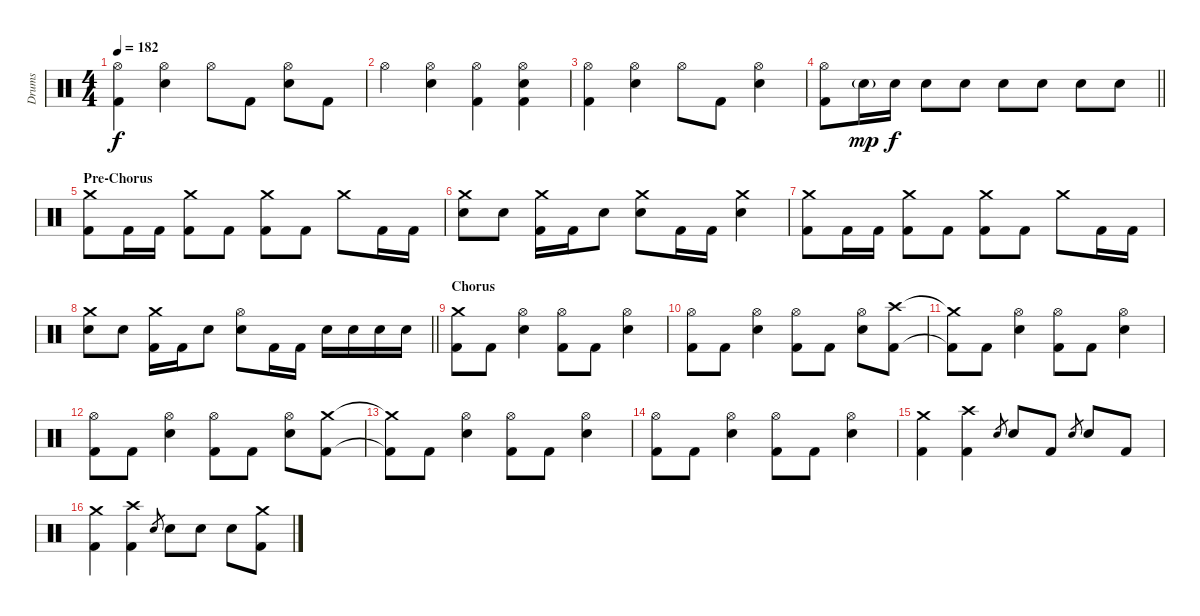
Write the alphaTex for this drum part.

\track ("Drums" "Drums") {instrument percussion}
\staff {score}
\articulation defaults
\ts (4 4)
\tempo 182
\clef neutral
\ks c
("Hi-Hat (open)" "Kick (hit) 2").4{dy f} ("Hi-Hat (open)" "Electric Snare (hit)").4 "Hi-Hat (open)".8 "Kick (hit) 2".8 ("Hi-Hat (open)" "Electric Snare (hit)").8 "Kick (hit) 2".8 |
"Hi-Hat (open)".4 ("Hi-Hat (open)" "Electric Snare (hit)").4 ("Hi-Hat (open)" "Kick (hit) 2").4 ("Hi-Hat (open)" "Electric Snare (hit)" "Kick (hit) 2").4 |
("Hi-Hat (open)" "Kick (hit) 2").4 ("Hi-Hat (open)" "Electric Snare (hit)").4 "Hi-Hat (open)".8 "Kick (hit) 2".8 ("Hi-Hat (open)" "Electric Snare (hit)").4 |
\barLineRight lightlight
("Hi-Hat (open)" "Kick (hit) 2").8 "Electric Snare (hit)"{g}.16{dy mp} "Electric Snare (hit)".16{dy f} "Electric Snare (hit)".8 "Electric Snare (hit)".8 "Electric Snare (hit)".8 "Electric Snare (hit)".8 "Electric Snare (hit)".8 "Electric Snare (hit)".8 |
\section ("" "Pre-Chorus")
("Crash medium (hit)" "Kick (hit) 2").8 "Kick (hit) 2".16 "Kick (hit) 2".16 ("Crash medium (hit)" "Kick (hit) 2").8 "Kick (hit) 2".8 ("Crash medium (hit)" "Kick (hit) 2").8 "Kick (hit) 2".8 "Crash medium (hit)".8 "Kick (hit) 2".16 "Kick (hit) 2".16 |
("Crash medium (hit)" "Electric Snare (hit)").8 "Electric Snare (hit)".8 ("Crash medium (hit)" "Kick (hit) 2").16 "Kick (hit) 2".16 "Electric Snare (hit)".8 ("Crash medium (hit)" "Electric Snare (hit)").8 "Kick (hit) 2".16 "Kick (hit) 2".16 ("Crash medium (hit)" "Electric Snare (hit)").4 |
("Crash medium (hit)" "Kick (hit) 2").8 "Kick (hit) 2".16 "Kick (hit) 2".16 ("Crash medium (hit)" "Kick (hit) 2").8 "Kick (hit) 2".8 ("Crash medium (hit)" "Kick (hit) 2").8 "Kick (hit) 2".8 "Crash medium (hit)".8 "Kick (hit) 2".16 "Kick (hit) 2".16 |
\barLineRight lightlight
("Crash medium (hit)" "Electric Snare (hit)").8 "Electric Snare (hit)".8 ("Crash medium (hit)" "Kick (hit) 2").16 "Kick (hit) 2".16 "Electric Snare (hit)".8 ("Hi-Hat (open)" "Electric Snare (hit)").8 "Kick (hit) 2".16 "Kick (hit) 2".16 "Electric Snare (hit)".16 "Electric Snare (hit)".16 "Electric Snare (hit)".16 "Electric Snare (hit)".16 |
\section ("" "Chorus")
("Crash medium (hit)" "Kick (hit) 2").8 "Kick (hit) 2".8 ("Hi-Hat (open)" "Electric Snare (hit)").4 ("Hi-Hat (open)" "Kick (hit) 2").8 "Kick (hit) 2".8 ("Hi-Hat (open)" "Electric Snare (hit)").4 |
("Hi-Hat (open)" "Kick (hit) 2").8 "Kick (hit) 2".8 ("Hi-Hat (open)" "Electric Snare (hit)").4 ("Hi-Hat (open)" "Kick (hit) 2").8 "Kick (hit) 2".8 ("Hi-Hat (open)" "Electric Snare (hit)").8 ("Crash high (hit)" "Kick (hit) 2").8 |
("Crash medium (hit)"{t} "Kick (hit) 2"{t}).8 "Kick (hit) 2".8 ("Hi-Hat (open)" "Electric Snare (hit)").4 ("Hi-Hat (open)" "Kick (hit) 2").8 "Kick (hit) 2".8 ("Hi-Hat (open)" "Electric Snare (hit)").4 |
("Hi-Hat (open)" "Kick (hit) 2").8 "Kick (hit) 2".8 ("Hi-Hat (open)" "Electric Snare (hit)").4 ("Hi-Hat (open)" "Kick (hit) 2").8 "Kick (hit) 2".8 ("Hi-Hat (open)" "Electric Snare (hit)").8 ("Crash medium (hit)" "Kick (hit) 2").8 |
("Crash medium (hit)"{t} "Kick (hit) 2"{t}).8 "Kick (hit) 2".8 ("Hi-Hat (open)" "Electric Snare (hit)").4 ("Hi-Hat (open)" "Kick (hit) 2").8 "Kick (hit) 2".8 ("Hi-Hat (open)" "Electric Snare (hit)").4 |
("Hi-Hat (open)" "Kick (hit) 2").8 "Kick (hit) 2".8 ("Hi-Hat (open)" "Electric Snare (hit)").4 ("Hi-Hat (open)" "Kick (hit) 2").8 "Kick (hit) 2".8 ("Hi-Hat (open)" "Electric Snare (hit)").4 |
("Crash medium (hit)" "Kick (hit) 2").4 ("Crash high (hit)" "Kick (hit) 2").4 "Electric Snare (hit)".8{gr} "Electric Snare (hit)".8 "Kick (hit) 2".8 "Electric Snare (hit)".8{gr} "Electric Snare (hit)".8 "Kick (hit) 2".8 |
("Crash medium (hit)" "Kick (hit) 2").4 ("Crash high (hit)" "Kick (hit) 2").4 "Electric Snare (hit)".8{gr} "Electric Snare (hit)".8 "Electric Snare (hit)".8 "Electric Snare (hit)".8 ("Crash medium (hit)" "Kick (hit) 2").8
